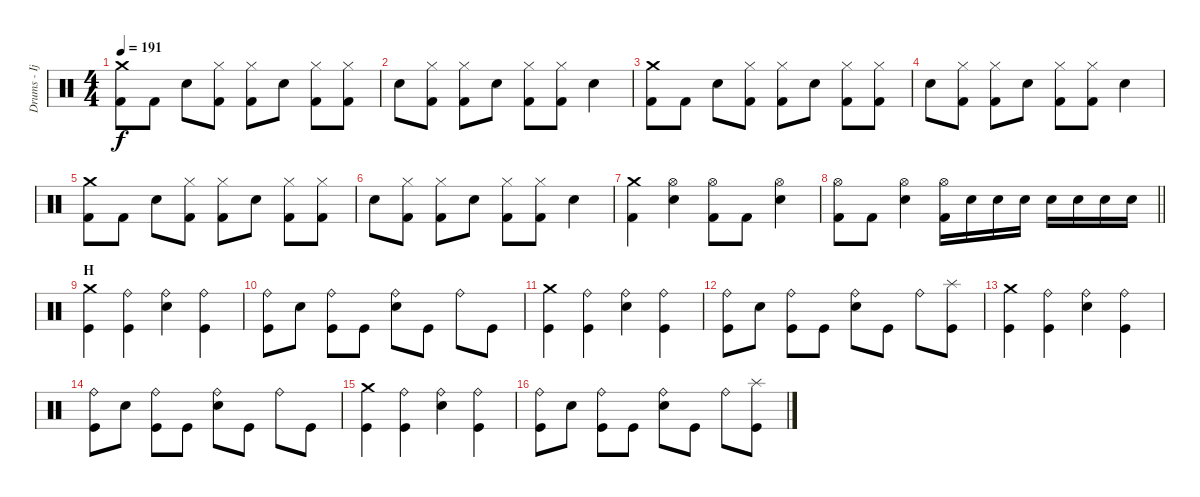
\track ("Drums - Ijichi" "Drums - Ij") {instrument percussion}
\staff
\articulation defaults
\ts (4 4)
\tempo 191
\clef neutral
\ks c
("Crash medium (hit)" "Kick (hit) 2").8{dy f} "Kick (hit) 2".8 "Electric Snare (hit)".8 ("Hi-Hat (closed)" "Kick (hit) 2").8 ("Hi-Hat (closed)" "Kick (hit) 2").8 "Electric Snare (hit)".8 ("Hi-Hat (closed)" "Kick (hit) 2").8 ("Hi-Hat (closed)" "Kick (hit) 2").8 |
"Electric Snare (hit)".8 ("Hi-Hat (closed)" "Kick (hit) 2").8 ("Hi-Hat (closed)" "Kick (hit) 2").8 "Electric Snare (hit)".8 ("Hi-Hat (closed)" "Kick (hit) 2").8 ("Hi-Hat (closed)" "Kick (hit) 2").8 "Electric Snare (hit)".4 |
("Crash medium (hit)" "Kick (hit) 2").8 "Kick (hit) 2".8 "Electric Snare (hit)".8 ("Hi-Hat (closed)" "Kick (hit) 2").8 ("Hi-Hat (closed)" "Kick (hit) 2").8 "Electric Snare (hit)".8 ("Hi-Hat (closed)" "Kick (hit) 2").8 ("Hi-Hat (closed)" "Kick (hit) 2").8 |
"Electric Snare (hit)".8 ("Hi-Hat (closed)" "Kick (hit) 2").8 ("Hi-Hat (closed)" "Kick (hit) 2").8 "Electric Snare (hit)".8 ("Hi-Hat (closed)" "Kick (hit) 2").8 ("Hi-Hat (closed)" "Kick (hit) 2").8 "Electric Snare (hit)".4 |
("Crash medium (hit)" "Kick (hit) 2").8 "Kick (hit) 2".8 "Electric Snare (hit)".8 ("Hi-Hat (closed)" "Kick (hit) 2").8 ("Hi-Hat (closed)" "Kick (hit) 2").8 "Electric Snare (hit)".8 ("Hi-Hat (closed)" "Kick (hit) 2").8 ("Hi-Hat (closed)" "Kick (hit) 2").8 |
"Electric Snare (hit)".8 ("Hi-Hat (closed)" "Kick (hit) 2").8 ("Hi-Hat (closed)" "Kick (hit) 2").8 "Electric Snare (hit)".8 ("Hi-Hat (closed)" "Kick (hit) 2").8 ("Hi-Hat (closed)" "Kick (hit) 2").8 "Electric Snare (hit)".4 |
("Crash medium (hit)" "Kick (hit) 2").4 ("Hi-Hat (open)" "Electric Snare (hit)").4 ("Hi-Hat (open)" "Kick (hit) 2").8 "Kick (hit) 2".8 ("Hi-Hat (open)" "Electric Snare (hit)").4 |
\barLineRight lightlight
("Hi-Hat (open)" "Kick (hit) 2").8 "Kick (hit) 2".8 ("Hi-Hat (open)" "Electric Snare (hit)").4 ("Hi-Hat (open)" "Kick (hit) 2").16 "Electric Snare (hit)".16 "Electric Snare (hit)".16 "Electric Snare (hit)".16 "Electric Snare (hit)".16 "Electric Snare (hit)".16 "Electric Snare (hit)".16 "Electric Snare (hit)".16 |
\section ("" "H")
("Crash medium (hit)" "Kick (hit)").4 ("Ride (bell)" "Kick (hit)").4 ("Ride (bell)" "Electric Snare (hit)").4 ("Ride (bell)" "Kick (hit)").4 |
("Ride (bell)" "Kick (hit)").8 "Electric Snare (hit)".8 ("Ride (bell)" "Kick (hit)").8 "Kick (hit)".8 ("Ride (bell)" "Electric Snare (hit)").8 "Kick (hit)".8 "Ride (bell)".8 "Kick (hit)".8 |
("Crash medium (hit)" "Kick (hit)").4 ("Ride (bell)" "Kick (hit)").4 ("Ride (bell)" "Electric Snare (hit)").4 ("Ride (bell)" "Kick (hit)").4 |
("Ride (bell)" "Kick (hit)").8 "Electric Snare (hit)".8 ("Ride (bell)" "Kick (hit)").8 "Kick (hit)".8 ("Ride (bell)" "Electric Snare (hit)").8 "Kick (hit)".8 "Ride (bell)".8 ("Splash (hit)" "Kick (hit)").8 |
("Crash medium (hit)" "Kick (hit)").4 ("Ride (bell)" "Kick (hit)").4 ("Ride (bell)" "Electric Snare (hit)").4 ("Ride (bell)" "Kick (hit)").4 |
("Ride (bell)" "Kick (hit)").8 "Electric Snare (hit)".8 ("Ride (bell)" "Kick (hit)").8 "Kick (hit)".8 ("Ride (bell)" "Electric Snare (hit)").8 "Kick (hit)".8 "Ride (bell)".8 "Kick (hit)".8 |
("Crash medium (hit)" "Kick (hit)").4 ("Ride (bell)" "Kick (hit)").4 ("Ride (bell)" "Electric Snare (hit)").4 ("Ride (bell)" "Kick (hit)").4 |
("Ride (bell)" "Kick (hit)").8 "Electric Snare (hit)".8 ("Ride (bell)" "Kick (hit)").8 "Kick (hit)".8 ("Ride (bell)" "Electric Snare (hit)").8 "Kick (hit)".8 "Ride (bell)".8 ("Splash (hit)" "Kick (hit)").8
